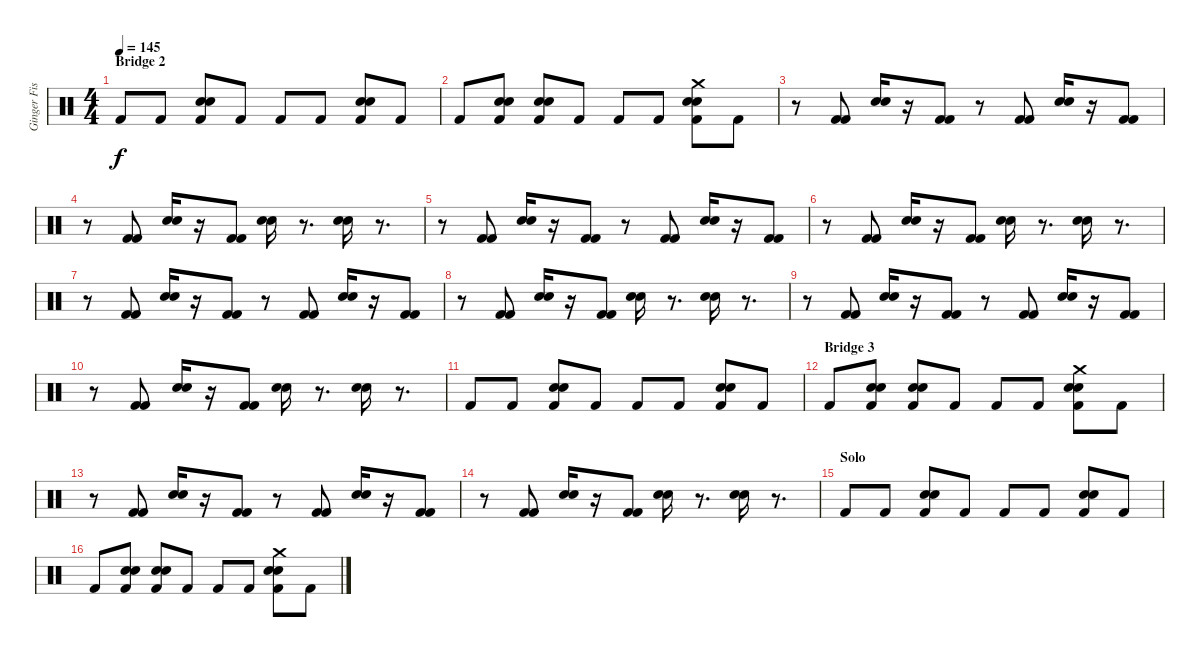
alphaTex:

\track ("Ginger Fish [Drums]" "Ginger Fis") {instrument percussion}
\staff {score}
\articulation defaults
\ts (4 4)
\section ("" "Bridge 2")
\tempo 145
\clef neutral
\ks c "Kick (hit) 2".8{dy f} "Kick (hit) 2".8
("Snare (hit) 2" "Snare (hit) 2" "Kick (hit) 2").8 "Kick (hit) 2".8 "Kick (hit) 2".8 "Kick (hit) 2".8 ("Snare (hit) 2" "Snare (hit) 2" "Kick (hit) 2").8 "Kick (hit) 2".8 |
"Kick (hit) 2".8 ("Snare (hit) 2" "Snare (hit) 2" "Kick (hit) 2").8 ("Snare (hit) 2" "Snare (hit) 2" "Kick (hit) 2").8 "Kick (hit) 2".8 "Kick (hit) 2".8 "Kick (hit) 2".8 ("Crash medium (hit)" "Snare (hit) 2" "Snare (hit) 2" "Kick (hit) 2").8 "Kick (hit) 2".8 |
r.8 ("Kick (hit) 2" "Kick (hit) 2").8 ("Snare (hit) 2" "Snare (hit) 2").16 r.16 ("Kick (hit) 2" "Kick (hit) 2").8 r.8 ("Kick (hit) 2" "Kick (hit) 2").8 ("Snare (hit) 2" "Snare (hit) 2").16 r.16 ("Kick (hit) 2" "Kick (hit) 2").8 |
r.8 ("Kick (hit) 2" "Kick (hit) 2").8 ("Snare (hit) 2" "Snare (hit) 2").16 r.16 ("Kick (hit) 2" "Kick (hit) 2").8 ("Snare (hit) 2" "Snare (hit) 2").16 r.8{d} ("Snare (hit) 2" "Snare (hit) 2").16 r.8{d} |
r.8 ("Kick (hit) 2" "Kick (hit) 2").8 ("Snare (hit) 2" "Snare (hit) 2").16 r.16 ("Kick (hit) 2" "Kick (hit) 2").8 r.8 ("Kick (hit) 2" "Kick (hit) 2").8 ("Snare (hit) 2" "Snare (hit) 2").16 r.16 ("Kick (hit) 2" "Kick (hit) 2").8 |
r.8 ("Kick (hit) 2" "Kick (hit) 2").8 ("Snare (hit) 2" "Snare (hit) 2").16 r.16 ("Kick (hit) 2" "Kick (hit) 2").8 ("Snare (hit) 2" "Snare (hit) 2").16 r.8{d} ("Snare (hit) 2" "Snare (hit) 2").16 r.8{d} |
r.8 ("Kick (hit) 2" "Kick (hit) 2").8 ("Snare (hit) 2" "Snare (hit) 2").16 r.16 ("Kick (hit) 2" "Kick (hit) 2").8 r.8 ("Kick (hit) 2" "Kick (hit) 2").8 ("Snare (hit) 2" "Snare (hit) 2").16 r.16 ("Kick (hit) 2" "Kick (hit) 2").8 |
r.8 ("Kick (hit) 2" "Kick (hit) 2").8 ("Snare (hit) 2" "Snare (hit) 2").16 r.16 ("Kick (hit) 2" "Kick (hit) 2").8 ("Snare (hit) 2" "Snare (hit) 2").16 r.8{d} ("Snare (hit) 2" "Snare (hit) 2").16 r.8{d} |
r.8 ("Kick (hit) 2" "Kick (hit) 2").8 ("Snare (hit) 2" "Snare (hit) 2").16 r.16 ("Kick (hit) 2" "Kick (hit) 2").8 r.8 ("Kick (hit) 2" "Kick (hit) 2").8 ("Snare (hit) 2" "Snare (hit) 2").16 r.16 ("Kick (hit) 2" "Kick (hit) 2").8 |
r.8 ("Kick (hit) 2" "Kick (hit) 2").8 ("Snare (hit) 2" "Snare (hit) 2").16 r.16 ("Kick (hit) 2" "Kick (hit) 2").8 ("Snare (hit) 2" "Snare (hit) 2").16 r.8{d} ("Snare (hit) 2" "Snare (hit) 2").16 r.8{d} |
"Kick (hit) 2".8 "Kick (hit) 2".8 ("Snare (hit) 2" "Snare (hit) 2" "Kick (hit) 2").8 "Kick (hit) 2".8 "Kick (hit) 2".8 "Kick (hit) 2".8 ("Snare (hit) 2" "Snare (hit) 2" "Kick (hit) 2").8 "Kick (hit) 2".8 |
\section ("" "Bridge 3")
"Kick (hit) 2".8 ("Snare (hit) 2" "Snare (hit) 2" "Kick (hit) 2").8 ("Snare (hit) 2" "Snare (hit) 2" "Kick (hit) 2").8 "Kick (hit) 2".8 "Kick (hit) 2".8 "Kick (hit) 2".8 ("Crash medium (hit)" "Snare (hit) 2" "Snare (hit) 2" "Kick (hit) 2").8 "Kick (hit) 2".8 |
r.8 ("Kick (hit) 2" "Kick (hit) 2").8 ("Snare (hit) 2" "Snare (hit) 2").16 r.16 ("Kick (hit) 2" "Kick (hit) 2").8 r.8 ("Kick (hit) 2" "Kick (hit) 2").8 ("Snare (hit) 2" "Snare (hit) 2").16 r.16 ("Kick (hit) 2" "Kick (hit) 2").8 |
r.8 ("Kick (hit) 2" "Kick (hit) 2").8 ("Snare (hit) 2" "Snare (hit) 2").16 r.16 ("Kick (hit) 2" "Kick (hit) 2").8 ("Snare (hit) 2" "Snare (hit) 2").16 r.8{d} ("Snare (hit) 2" "Snare (hit) 2").16 r.8{d} |
\section ("" "Solo")
"Kick (hit) 2".8 "Kick (hit) 2".8 ("Snare (hit) 2" "Snare (hit) 2" "Kick (hit) 2").8 "Kick (hit) 2".8 "Kick (hit) 2".8 "Kick (hit) 2".8 ("Snare (hit) 2" "Snare (hit) 2" "Kick (hit) 2").8 "Kick (hit) 2".8 |
"Kick (hit) 2".8 ("Snare (hit) 2" "Snare (hit) 2" "Kick (hit) 2").8 ("Snare (hit) 2" "Snare (hit) 2" "Kick (hit) 2").8 "Kick (hit) 2".8 "Kick (hit) 2".8 "Kick (hit) 2".8 ("Crash medium (hit)" "Snare (hit) 2" "Snare (hit) 2" "Kick (hit) 2").8 "Kick (hit) 2".8
